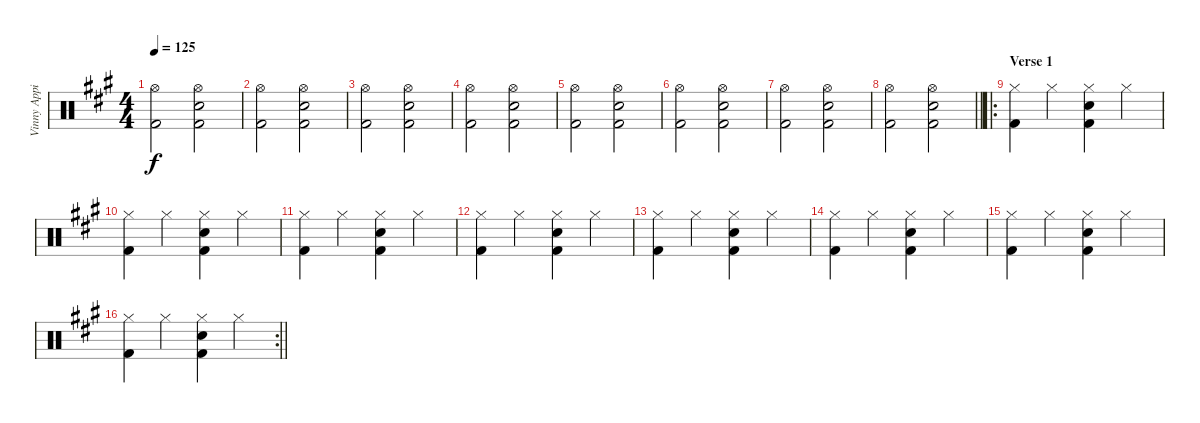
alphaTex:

\track ("Vinny Appice" "Vinny Appi") {instrument percussion}
\staff {score}
\articulation defaults
\ts (4 4)
\tempo 125
\clef neutral
\ks a
("Hi-Hat (open)" "Kick (hit) 2").2{dy f} ("Hi-Hat (open)" "Snare (hit) 2" "Kick (hit) 2").2 |
("Hi-Hat (open)" "Kick (hit) 2").2 ("Hi-Hat (open)" "Snare (hit) 2" "Kick (hit) 2").2 |
("Hi-Hat (open)" "Kick (hit) 2").2 ("Hi-Hat (open)" "Snare (hit) 2" "Kick (hit) 2").2 |
("Hi-Hat (open)" "Kick (hit) 2").2 ("Hi-Hat (open)" "Snare (hit) 2" "Kick (hit) 2").2 |
("Hi-Hat (open)" "Kick (hit) 2").2 ("Hi-Hat (open)" "Snare (hit) 2" "Kick (hit) 2").2 |
("Hi-Hat (open)" "Kick (hit) 2").2 ("Hi-Hat (open)" "Snare (hit) 2" "Kick (hit) 2").2 |
("Hi-Hat (open)" "Kick (hit) 2").2 ("Hi-Hat (open)" "Snare (hit) 2" "Kick (hit) 2").2 |
\barLineRight lightlight
("Hi-Hat (open)" "Kick (hit) 2").2 ("Hi-Hat (open)" "Snare (hit) 2" "Kick (hit) 2").2 |
\ro
\section ("" "Verse 1")
("Hi-Hat (closed)" "Kick (hit) 2").4 "Hi-Hat (closed)".4 ("Hi-Hat (closed)" "Snare (hit) 2" "Kick (hit) 2").4 "Hi-Hat (closed)".4 |
("Hi-Hat (closed)" "Kick (hit) 2").4 "Hi-Hat (closed)".4 ("Hi-Hat (closed)" "Snare (hit) 2" "Kick (hit) 2").4 "Hi-Hat (closed)".4 |
("Hi-Hat (closed)" "Kick (hit) 2").4 "Hi-Hat (closed)".4 ("Hi-Hat (closed)" "Snare (hit) 2" "Kick (hit) 2").4 "Hi-Hat (closed)".4 |
("Hi-Hat (closed)" "Kick (hit) 2").4 "Hi-Hat (closed)".4 ("Hi-Hat (closed)" "Snare (hit) 2" "Kick (hit) 2").4 "Hi-Hat (closed)".4 |
("Hi-Hat (closed)" "Kick (hit) 2").4 "Hi-Hat (closed)".4 ("Hi-Hat (closed)" "Snare (hit) 2" "Kick (hit) 2").4 "Hi-Hat (closed)".4 |
("Hi-Hat (closed)" "Kick (hit) 2").4 "Hi-Hat (closed)".4 ("Hi-Hat (closed)" "Snare (hit) 2" "Kick (hit) 2").4 "Hi-Hat (closed)".4 |
("Hi-Hat (closed)" "Kick (hit) 2").4 "Hi-Hat (closed)".4 ("Hi-Hat (closed)" "Snare (hit) 2" "Kick (hit) 2").4 "Hi-Hat (closed)".4 |
\rc 2
\barLineRight lightlight
("Hi-Hat (closed)" "Kick (hit) 2").4 "Hi-Hat (closed)".4 ("Hi-Hat (closed)" "Snare (hit) 2" "Kick (hit) 2").4 "Hi-Hat (closed)".4
